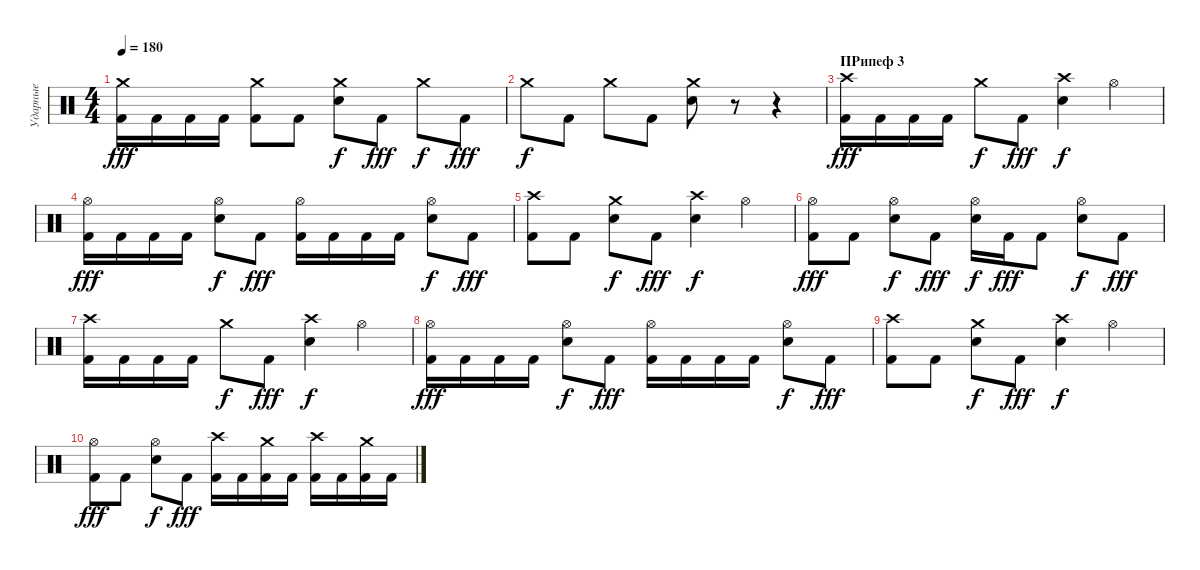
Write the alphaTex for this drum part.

\track ("Ударные" "Ударные") {instrument percussion}
\staff {score}
\articulation defaults
\ts (4 4)
\tempo 180
\clef neutral
\ks c
("Kick (hit) 2" "Crash medium (hit)").16{dy fff} "Kick (hit) 2".16 "Kick (hit) 2".16 "Kick (hit) 2".16 ("Kick (hit) 2" "Crash medium (hit)").8 "Kick (hit) 2".8 ("Snare (hit) 2" "Crash medium (hit)").8{dy f} "Kick (hit) 2".8{dy fff} "Crash medium (hit)".8{dy f} "Kick (hit) 2".8{dy fff} |
"Crash medium (hit)".8{dy f} "Kick (hit) 2".8 "Crash medium (hit)".8 "Kick (hit) 2".8 ("Snare (hit) 2" "Crash medium (hit)").8 r.8 r.4 |
\section ("" "ПРипеф 3")
("Kick (hit) 2" "Crash high (hit)").16{dy fff} "Kick (hit) 2".16 "Kick (hit) 2".16 "Kick (hit) 2".16 "Crash medium (hit)".8{dy f} "Kick (hit) 2".8{dy fff} ("Snare (hit) 2" "Crash high (hit)").4{dy f} "Hi-Hat (open)".4 |
("Kick (hit) 2" "Hi-Hat (open)").16{dy fff} "Kick (hit) 2".16 "Kick (hit) 2".16 "Kick (hit) 2".16 ("Snare (hit) 2" "Hi-Hat (open)").8{dy f} "Kick (hit) 2".8{dy fff} ("Kick (hit) 2" "Hi-Hat (open)").16 "Kick (hit) 2".16 "Kick (hit) 2".16 "Kick (hit) 2".16 ("Snare (hit) 2" "Hi-Hat (open)").8{dy f} "Kick (hit) 2".8{dy fff} |
("Kick (hit) 2" "Crash high (hit)").8 "Kick (hit) 2".8 ("Snare (hit) 2" "Crash medium (hit)").8{dy f} "Kick (hit) 2".8{dy fff} ("Snare (hit) 2" "Crash high (hit)").4{dy f} "Hi-Hat (open)".4 |
("Kick (hit) 2" "Hi-Hat (open)").8{dy fff} "Kick (hit) 2".8 ("Snare (hit) 2" "Hi-Hat (open)").8{dy f} "Kick (hit) 2".8{dy fff} ("Snare (hit) 2" "Hi-Hat (open)").16{dy f} "Kick (hit) 2".16{dy fff} "Kick (hit) 2".8 ("Snare (hit) 2" "Hi-Hat (open)").8{dy f} "Kick (hit) 2".8{dy fff} |
("Kick (hit) 2" "Crash high (hit)").16 "Kick (hit) 2".16 "Kick (hit) 2".16 "Kick (hit) 2".16 "Crash medium (hit)".8{dy f} "Kick (hit) 2".8{dy fff} ("Snare (hit) 2" "Crash high (hit)").4{dy f} "Hi-Hat (open)".4 |
("Kick (hit) 2" "Hi-Hat (open)").16{dy fff} "Kick (hit) 2".16 "Kick (hit) 2".16 "Kick (hit) 2".16 ("Snare (hit) 2" "Hi-Hat (open)").8{dy f} "Kick (hit) 2".8{dy fff} ("Kick (hit) 2" "Hi-Hat (open)").16 "Kick (hit) 2".16 "Kick (hit) 2".16 "Kick (hit) 2".16 ("Snare (hit) 2" "Hi-Hat (open)").8{dy f} "Kick (hit) 2".8{dy fff} |
("Kick (hit) 2" "Crash high (hit)").8 "Kick (hit) 2".8 ("Snare (hit) 2" "Crash medium (hit)").8{dy f} "Kick (hit) 2".8{dy fff} ("Snare (hit) 2" "Crash high (hit)").4{dy f} "Hi-Hat (open)".4 |
("Kick (hit) 2" "Hi-Hat (open)").8{dy fff} "Kick (hit) 2".8 ("Snare (hit) 2" "Hi-Hat (open)").8{dy f} "Kick (hit) 2".8{dy fff} ("Kick (hit) 2" "Crash high (hit)").16 "Kick (hit) 2".16 ("Kick (hit) 2" "Crash medium (hit)").16 "Kick (hit) 2".16 ("Kick (hit) 2" "Crash high (hit)").16 "Kick (hit) 2".16 ("Kick (hit) 2" "Crash medium (hit)").16 "Kick (hit) 2".16
